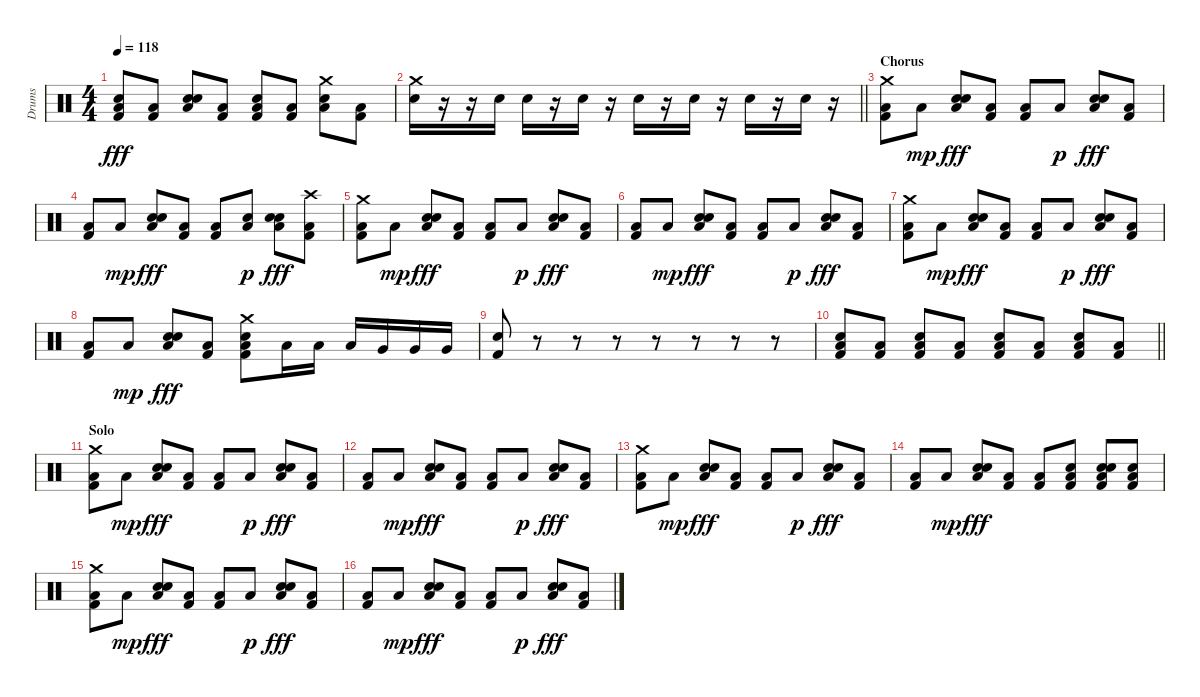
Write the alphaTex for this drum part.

\track ("Drums" "Drums") {instrument percussion}
\staff {score}
\articulation defaults
\ts (4 4)
\tempo 118
\clef neutral
\ks c
("Snare (hit) 2" "Low Floor Tom (hit)" "Kick (hit) 2").8{dy fff} ("Low Floor Tom (hit)" "Kick (hit) 2").8 ("Hand Clap (hit)" "Snare (hit) 2" "Low Floor Tom (hit)").8 ("Low Floor Tom (hit)" "Kick (hit) 2").8 ("Snare (hit) 2" "Low Floor Tom (hit)" "Kick (hit) 2").8 ("Low Floor Tom (hit)" "Kick (hit) 2").8 ("Crash medium (hit)" "Snare (hit) 2" "Low Floor Tom (hit)").8 ("Low Floor Tom (hit)" "Kick (hit) 2").8 |
\barLineRight lightlight
("Crash medium (hit)" "Snare (hit) 2").16 r.16 r.16 "Snare (hit) 2".16 "Snare (hit) 2".16 r.16 "Snare (hit) 2".16 r.16 "Snare (hit) 2".16 r.16 "Snare (hit) 2".16 r.16 "Snare (hit) 2".16 r.16 "Snare (hit) 2".16 r.16 |
\section ("" "Chorus")
("Crash medium (hit)" "Low Floor Tom (hit)" "Kick (hit) 2").8 "Low Floor Tom (hit)".8{dy mp} ("Hand Clap (hit)" "Snare (hit) 2" "Low Floor Tom (hit)").8{dy fff} ("Low Floor Tom (hit)" "Kick (hit) 2").8 ("Low Floor Tom (hit)" "Kick (hit) 2").8 "Low Floor Tom (hit)".8{dy p} ("Hand Clap (hit)" "Snare (hit) 2" "Low Floor Tom (hit)").8{dy fff} ("Low Floor Tom (hit)" "Kick (hit) 2").8 |
("Low Floor Tom (hit)" "Kick (hit) 2").8 "Low Floor Tom (hit)".8{dy mp} ("Hand Clap (hit)" "Snare (hit) 2" "Low Floor Tom (hit)").8{dy fff} ("Low Floor Tom (hit)" "Kick (hit) 2").8 ("Low Floor Tom (hit)" "Kick (hit) 2").8 ("Snare (hit) 2" "Low Floor Tom (hit)").8{dy p} ("Hand Clap (hit)" "Snare (hit) 2" "Low Floor Tom (hit)").8{dy fff} ("Crash high (hit)" "Low Floor Tom (hit)" "Kick (hit) 2").8 |
("Crash medium (hit)" "Low Floor Tom (hit)" "Kick (hit) 2").8 "Low Floor Tom (hit)".8{dy mp} ("Hand Clap (hit)" "Snare (hit) 2" "Low Floor Tom (hit)").8{dy fff} ("Low Floor Tom (hit)" "Kick (hit) 2").8 ("Low Floor Tom (hit)" "Kick (hit) 2").8 "Low Floor Tom (hit)".8{dy p} ("Hand Clap (hit)" "Snare (hit) 2" "Low Floor Tom (hit)").8{dy fff} ("Low Floor Tom (hit)" "Kick (hit) 2").8 |
("Low Floor Tom (hit)" "Kick (hit) 2").8 "Low Floor Tom (hit)".8{dy mp} ("Hand Clap (hit)" "Snare (hit) 2" "Low Floor Tom (hit)").8{dy fff} ("Low Floor Tom (hit)" "Kick (hit) 2").8 ("Low Floor Tom (hit)" "Kick (hit) 2").8 "Low Floor Tom (hit)".8{dy p} ("Hand Clap (hit)" "Snare (hit) 2" "Low Floor Tom (hit)").8{dy fff} ("Low Floor Tom (hit)" "Kick (hit) 2").8 |
("Crash medium (hit)" "Low Floor Tom (hit)" "Kick (hit) 2").8 "Low Floor Tom (hit)".8{dy mp} ("Hand Clap (hit)" "Snare (hit) 2" "Low Floor Tom (hit)").8{dy fff} ("Low Floor Tom (hit)" "Kick (hit) 2").8 ("Low Floor Tom (hit)" "Kick (hit) 2").8 "Low Floor Tom (hit)".8{dy p} ("Hand Clap (hit)" "Snare (hit) 2" "Low Floor Tom (hit)").8{dy fff} ("Low Floor Tom (hit)" "Kick (hit) 2").8 |
("Low Floor Tom (hit)" "Kick (hit) 2").8 "Low Floor Tom (hit)".8{dy mp} ("Hand Clap (hit)" "Snare (hit) 2" "Low Floor Tom (hit)").8{dy fff} ("Low Floor Tom (hit)" "Kick (hit) 2").8 ("Crash medium (hit)" "Snare (hit) 2" "Low Floor Tom (hit)" "Kick (hit) 2").8 "Low Tom (hit)".16 "Low Tom (hit)".16 "Low Tom (hit)".16 "Very Low Tom (hit)".16 "Very Low Tom (hit)".16 "Very Low Tom (hit)".16 |
("Snare (hit) 2" "Kick (hit) 2").8 r.8 r.8 r.8 r.8 r.8 r.8 r.8 |
\barLineRight lightlight
("Snare (hit) 2" "Low Floor Tom (hit)" "Kick (hit) 2").8 ("Low Floor Tom (hit)" "Kick (hit) 2").8 ("Snare (hit) 2" "Low Floor Tom (hit)" "Kick (hit) 2").8 ("Low Floor Tom (hit)" "Kick (hit) 2").8 ("Snare (hit) 2" "Low Floor Tom (hit)" "Kick (hit) 2").8 ("Low Floor Tom (hit)" "Kick (hit) 2").8 ("Snare (hit) 2" "Low Floor Tom (hit)" "Kick (hit) 2").8 ("Low Floor Tom (hit)" "Kick (hit) 2").8 |
\section ("" "Solo")
("Crash medium (hit)" "Low Floor Tom (hit)" "Kick (hit) 2").8 "Low Floor Tom (hit)".8{dy mp} ("Hand Clap (hit)" "Snare (hit) 2" "Low Floor Tom (hit)").8{dy fff} ("Low Floor Tom (hit)" "Kick (hit) 2").8 ("Low Floor Tom (hit)" "Kick (hit) 2").8 "Low Floor Tom (hit)".8{dy p} ("Hand Clap (hit)" "Snare (hit) 2" "Low Floor Tom (hit)").8{dy fff} ("Low Floor Tom (hit)" "Kick (hit) 2").8 |
("Low Floor Tom (hit)" "Kick (hit) 2").8 "Low Floor Tom (hit)".8{dy mp} ("Hand Clap (hit)" "Snare (hit) 2" "Low Floor Tom (hit)").8{dy fff} ("Low Floor Tom (hit)" "Kick (hit) 2").8 ("Low Floor Tom (hit)" "Kick (hit) 2").8 "Low Floor Tom (hit)".8{dy p} ("Hand Clap (hit)" "Snare (hit) 2" "Low Floor Tom (hit)").8{dy fff} ("Low Floor Tom (hit)" "Kick (hit) 2").8 |
("Crash medium (hit)" "Low Floor Tom (hit)" "Kick (hit) 2").8 "Low Floor Tom (hit)".8{dy mp} ("Hand Clap (hit)" "Snare (hit) 2" "Low Floor Tom (hit)").8{dy fff} ("Low Floor Tom (hit)" "Kick (hit) 2").8 ("Low Floor Tom (hit)" "Kick (hit) 2").8 "Low Floor Tom (hit)".8{dy p} ("Hand Clap (hit)" "Snare (hit) 2" "Low Floor Tom (hit)").8{dy fff} ("Low Floor Tom (hit)" "Kick (hit) 2").8 |
("Low Floor Tom (hit)" "Kick (hit) 2").8 "Low Floor Tom (hit)".8{dy mp} ("Hand Clap (hit)" "Snare (hit) 2" "Low Floor Tom (hit)").8{dy fff} ("Low Floor Tom (hit)" "Kick (hit) 2").8 ("Low Floor Tom (hit)" "Kick (hit) 2").8 ("Snare (hit) 2" "Low Floor Tom (hit)" "Kick (hit) 2").8 ("Hand Clap (hit)" "Snare (hit) 2" "Low Floor Tom (hit)" "Kick (hit) 2").8 ("Snare (hit) 2" "Low Floor Tom (hit)" "Kick (hit) 2").8 |
("Crash medium (hit)" "Low Floor Tom (hit)" "Kick (hit) 2").8 "Low Floor Tom (hit)".8{dy mp} ("Hand Clap (hit)" "Snare (hit) 2" "Low Floor Tom (hit)").8{dy fff} ("Low Floor Tom (hit)" "Kick (hit) 2").8 ("Low Floor Tom (hit)" "Kick (hit) 2").8 "Low Floor Tom (hit)".8{dy p} ("Hand Clap (hit)" "Snare (hit) 2" "Low Floor Tom (hit)").8{dy fff} ("Low Floor Tom (hit)" "Kick (hit) 2").8 |
("Low Floor Tom (hit)" "Kick (hit) 2").8 "Low Floor Tom (hit)".8{dy mp} ("Hand Clap (hit)" "Snare (hit) 2" "Low Floor Tom (hit)").8{dy fff} ("Low Floor Tom (hit)" "Kick (hit) 2").8 ("Low Floor Tom (hit)" "Kick (hit) 2").8 "Low Floor Tom (hit)".8{dy p} ("Hand Clap (hit)" "Snare (hit) 2" "Low Floor Tom (hit)").8{dy fff} ("Low Floor Tom (hit)" "Kick (hit) 2").8
